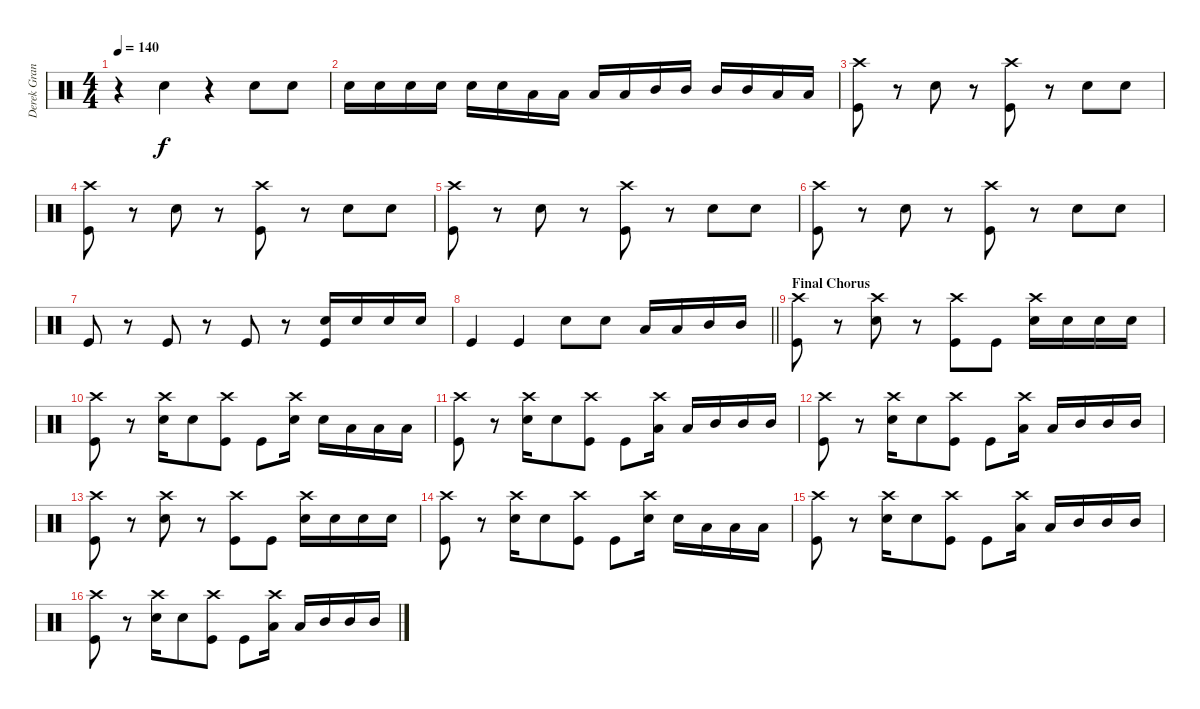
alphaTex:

\track ("Derek Grant" "Derek Gran") {instrument percussion}
\staff {score}
\articulation defaults
\ts (4 4)
\tempo 140
\clef neutral
\ks c
r.4{dy f} "Hand Clap (hit)".4 r.4 "Hand Clap (hit)".8 "Hand Clap (hit)".8 |
"Snare (hit) 2".16 "Snare (hit) 2".16 "Snare (hit) 2".16 "Snare (hit) 2".16 "Snare (hit) 2".16 "Snare (hit) 2".16 "Low Tom (hit)".16 "Low Tom (hit)".16 "Low Tom (hit)".16 "Low Tom (hit)".16 "Mid Tom (hit)".16 "Mid Tom (hit)".16 "Mid Tom (hit)".16 "Mid Tom (hit)".16 "Low Floor Tom (hit)".16 "Low Floor Tom (hit)".16 |
("Crash high (hit)" "Kick (hit)").8 r.8 "Snare (hit) 2".8 r.8 ("Crash high (hit)" "Kick (hit)").8 r.8 "Snare (hit) 2".8 "Snare (hit) 2".8 |
("Crash high (hit)" "Kick (hit)").8 r.8 "Snare (hit) 2".8 r.8 ("Crash high (hit)" "Kick (hit)").8 r.8 "Snare (hit) 2".8 "Snare (hit) 2".8 |
("Crash high (hit)" "Kick (hit)").8 r.8 "Snare (hit) 2".8 r.8 ("Crash high (hit)" "Kick (hit)").8 r.8 "Snare (hit) 2".8 "Snare (hit) 2".8 |
("Crash high (hit)" "Kick (hit)").8 r.8 "Snare (hit) 2".8 r.8 ("Crash high (hit)" "Kick (hit)").8 r.8 "Snare (hit) 2".8 "Snare (hit) 2".8 |
"Kick (hit)".8 r.8 "Kick (hit)".8 r.8 "Kick (hit)".8 r.8 ("Snare (hit) 2" "Kick (hit)").16 "Snare (hit) 2".16 "Snare (hit) 2".16 "Snare (hit) 2".16 |
\barLineRight lightlight "Kick (hit)".4 "Kick (hit)".4 "Snare (hit) 2".8 "Snare (hit) 2".8 "Low Tom (hit)".16 "Low Tom (hit)".16 "Mid Tom (hit)".16 "Mid Tom (hit)".16
|
\section ("" "Final Chorus")
("Crash high (hit)" "Kick (hit)").8 r.8 ("Crash high (hit)" "Snare (hit) 2").8 r.8 ("Crash high (hit)" "Kick (hit)").8 "Kick (hit)".8 ("Crash high (hit)" "Snare (hit) 2").16 "Snare (hit) 2".16 "Snare (hit) 2".16 "Snare (hit) 2".16 |
("Crash high (hit)" "Kick (hit)").8 r.8 ("Crash high (hit)" "Snare (hit) 2").16 "Snare (hit) 2".8 ("Crash high (hit)" "Kick (hit)").8 "Kick (hit)".8 ("Crash high (hit)" "Snare (hit) 2").16 "Snare (hit) 2".16 "Low Tom (hit)".16 "Low Tom (hit)".16 "Low Tom (hit)".16 |
("Crash high (hit)" "Kick (hit)").8 r.8 ("Crash high (hit)" "Snare (hit) 2").16 "Snare (hit) 2".8 ("Crash high (hit)" "Kick (hit)").8 "Kick (hit)".8 ("Crash high (hit)" "Low Tom (hit)").16 "Low Tom (hit)".16 "Mid Tom (hit)".16 "Mid Tom (hit)".16 "Mid Tom (hit)".16 |
("Crash high (hit)" "Kick (hit)").8 r.8 ("Crash high (hit)" "Snare (hit) 2").16 "Snare (hit) 2".8 ("Crash high (hit)" "Kick (hit)").8 "Kick (hit)".8 ("Crash high (hit)" "Low Tom (hit)").16 "Low Tom (hit)".16 "Mid Tom (hit)".16 "Mid Tom (hit)".16 "Mid Tom (hit)".16 |
("Crash high (hit)" "Kick (hit)").8 r.8 ("Crash high (hit)" "Snare (hit) 2").8 r.8 ("Crash high (hit)" "Kick (hit)").8 "Kick (hit)".8 ("Crash high (hit)" "Snare (hit) 2").16 "Snare (hit) 2".16 "Snare (hit) 2".16 "Snare (hit) 2".16 |
("Crash high (hit)" "Kick (hit)").8 r.8 ("Crash high (hit)" "Snare (hit) 2").16 "Snare (hit) 2".8 ("Crash high (hit)" "Kick (hit)").8 "Kick (hit)".8 ("Crash high (hit)" "Snare (hit) 2").16 "Snare (hit) 2".16 "Low Tom (hit)".16 "Low Tom (hit)".16 "Low Tom (hit)".16 |
("Crash high (hit)" "Kick (hit)").8 r.8 ("Crash high (hit)" "Snare (hit) 2").16 "Snare (hit) 2".8 ("Crash high (hit)" "Kick (hit)").8 "Kick (hit)".8 ("Crash high (hit)" "Low Tom (hit)").16 "Low Tom (hit)".16 "Mid Tom (hit)".16 "Mid Tom (hit)".16 "Mid Tom (hit)".16 |
("Crash high (hit)" "Kick (hit)").8 r.8 ("Crash high (hit)" "Snare (hit) 2").16 "Snare (hit) 2".8 ("Crash high (hit)" "Kick (hit)").8 "Kick (hit)".8 ("Crash high (hit)" "Low Tom (hit)").16 "Low Tom (hit)".16 "Mid Tom (hit)".16 "Mid Tom (hit)".16 "Mid Tom (hit)".16
